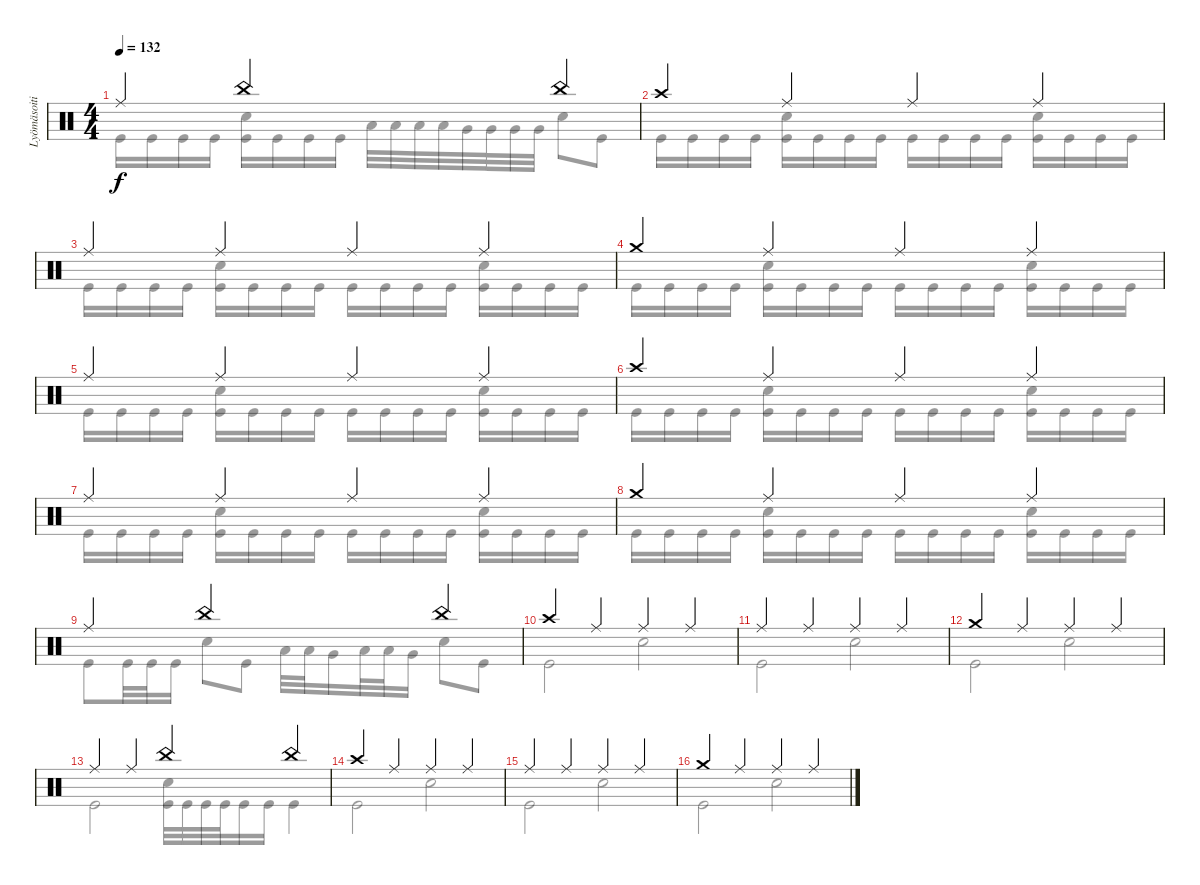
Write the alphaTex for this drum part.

\track ("Lyömäsoitin" "Lyömäsoiti") {instrument percussion}
\staff {score}
\articulation defaults
\voice
\ts (4 4)
\tempo 132
\clef neutral
\ks c "Ride (middle)".4{dy f} "China (hit)".2 "China (hit)".4
|
"Crash high (hit)".4 "Ride (middle)".4 "Ride (middle)".4 "Ride (middle)".4 |
"Ride (middle)".4 "Ride (middle)".4 "Ride (middle)".4 "Ride (middle)".4 |
"Crash medium (hit)".4 "Ride (middle)".4 "Ride (middle)".4 "Ride (middle)".4 |
"Ride (middle)".4 "Ride (middle)".4 "Ride (middle)".4 "Ride (middle)".4 |
"Crash high (hit)".4 "Ride (middle)".4 "Ride (middle)".4 "Ride (middle)".4 |
"Ride (middle)".4 "Ride (middle)".4 "Ride (middle)".4 "Ride (middle)".4 |
"Crash medium (hit)".4 "Ride (middle)".4 "Ride (middle)".4 "Ride (middle)".4 |
"Ride (middle)".4 "China (hit)".2 "China (hit)".4 |
"Crash high (hit)".4 "Ride (middle)".4 "Ride (middle)".4 "Ride (middle)".4 |
"Ride (middle)".4 "Ride (middle)".4 "Ride (middle)".4 "Ride (middle)".4 |
"Crash medium (hit)".4 "Ride (middle)".4 "Ride (middle)".4 "Ride (middle)".4 |
"Ride (middle)".4 "Ride (middle)".4 "China (hit)".4 "China (hit)".4 |
"Crash high (hit)".4 "Ride (middle)".4 "Ride (middle)".4 "Ride (middle)".4 |
"Ride (middle)".4 "Ride (middle)".4 "Ride (middle)".4 "Ride (middle)".4 |
"Crash medium (hit)".4 "Ride (middle)".4 "Ride (middle)".4 "Ride (middle)".4
\voice
\clef neutral
\ottava regular
\simile none
\ks c "Kick (hit)".16{dy f} "Kick (hit)".16 "Kick (hit)".16 "Kick (hit)".16
("Electric Snare (hit)" "Kick (hit)").16 "Kick (hit)".16 "Kick (hit)".16 "Kick (hit)".16 "Low Tom (hit)".32 "Low Tom (hit)".32 "Low Tom (hit)".32 "Low Tom (hit)".32 "Very Low Tom (hit)".32 "Very Low Tom (hit)".32 "Very Low Tom (hit)".32 "Very Low Tom (hit)".32 "Electric Snare (hit)".8 "Kick (hit)".8 |
"Kick (hit)".16 "Kick (hit)".16 "Kick (hit)".16 "Kick (hit)".16 ("Electric Snare (hit)" "Kick (hit)").16 "Kick (hit)".16 "Kick (hit)".16 "Kick (hit)".16 "Kick (hit)".16 "Kick (hit)".16 "Kick (hit)".16 "Kick (hit)".16 ("Electric Snare (hit)" "Kick (hit)").16 "Kick (hit)".16 "Kick (hit)".16 "Kick (hit)".16 |
"Kick (hit)".16 "Kick (hit)".16 "Kick (hit)".16 "Kick (hit)".16 ("Electric Snare (hit)" "Kick (hit)").16 "Kick (hit)".16 "Kick (hit)".16 "Kick (hit)".16 "Kick (hit)".16 "Kick (hit)".16 "Kick (hit)".16 "Kick (hit)".16 ("Electric Snare (hit)" "Kick (hit)").16 "Kick (hit)".16 "Kick (hit)".16 "Kick (hit)".16 |
"Kick (hit)".16 "Kick (hit)".16 "Kick (hit)".16 "Kick (hit)".16 ("Electric Snare (hit)" "Kick (hit)").16 "Kick (hit)".16 "Kick (hit)".16 "Kick (hit)".16 "Kick (hit)".16 "Kick (hit)".16 "Kick (hit)".16 "Kick (hit)".16 ("Electric Snare (hit)" "Kick (hit)").16 "Kick (hit)".16 "Kick (hit)".16 "Kick (hit)".16 |
"Kick (hit)".16 "Kick (hit)".16 "Kick (hit)".16 "Kick (hit)".16 ("Electric Snare (hit)" "Kick (hit)").16 "Kick (hit)".16 "Kick (hit)".16 "Kick (hit)".16 "Kick (hit)".16 "Kick (hit)".16 "Kick (hit)".16 "Kick (hit)".16 ("Electric Snare (hit)" "Kick (hit)").16 "Kick (hit)".16 "Kick (hit)".16 "Kick (hit)".16 |
"Kick (hit)".16 "Kick (hit)".16 "Kick (hit)".16 "Kick (hit)".16 ("Electric Snare (hit)" "Kick (hit)").16 "Kick (hit)".16 "Kick (hit)".16 "Kick (hit)".16 "Kick (hit)".16 "Kick (hit)".16 "Kick (hit)".16 "Kick (hit)".16 ("Electric Snare (hit)" "Kick (hit)").16 "Kick (hit)".16 "Kick (hit)".16 "Kick (hit)".16 |
"Kick (hit)".16 "Kick (hit)".16 "Kick (hit)".16 "Kick (hit)".16 ("Electric Snare (hit)" "Kick (hit)").16 "Kick (hit)".16 "Kick (hit)".16 "Kick (hit)".16 "Kick (hit)".16 "Kick (hit)".16 "Kick (hit)".16 "Kick (hit)".16 ("Electric Snare (hit)" "Kick (hit)").16 "Kick (hit)".16 "Kick (hit)".16 "Kick (hit)".16 |
"Kick (hit)".16 "Kick (hit)".16 "Kick (hit)".16 "Kick (hit)".16 ("Electric Snare (hit)" "Kick (hit)").16 "Kick (hit)".16 "Kick (hit)".16 "Kick (hit)".16 "Kick (hit)".16 "Kick (hit)".16 "Kick (hit)".16 "Kick (hit)".16 ("Electric Snare (hit)" "Kick (hit)").16 "Kick (hit)".16 "Kick (hit)".16 "Kick (hit)".16 |
"Kick (hit)".8 "Kick (hit)".32 "Kick (hit)".32 "Kick (hit)".16 "Electric Snare (hit)".8 "Kick (hit)".8 "Low Tom (hit)".32 "Low Tom (hit)".32 "Very Low Tom (hit)".16 "Low Tom (hit)".32 "Low Tom (hit)".32 "Very Low Tom (hit)".16 "Electric Snare (hit)".8 "Kick (hit)".8 |
"Kick (hit)".2 "Electric Snare (hit)".2 |
"Kick (hit)".2 "Electric Snare (hit)".2 |
"Kick (hit)".2 "Electric Snare (hit)".2 |
"Kick (hit)".2 ("Electric Snare (hit)" "Kick (hit)").32 "Kick (hit)".32 "Kick (hit)".32 "Kick (hit)".32 "Kick (hit)".16 "Kick (hit)".16 "Kick (hit)".4 |
"Kick (hit)".2 "Electric Snare (hit)".2 |
"Kick (hit)".2 "Electric Snare (hit)".2 |
"Kick (hit)".2 "Electric Snare (hit)".2
